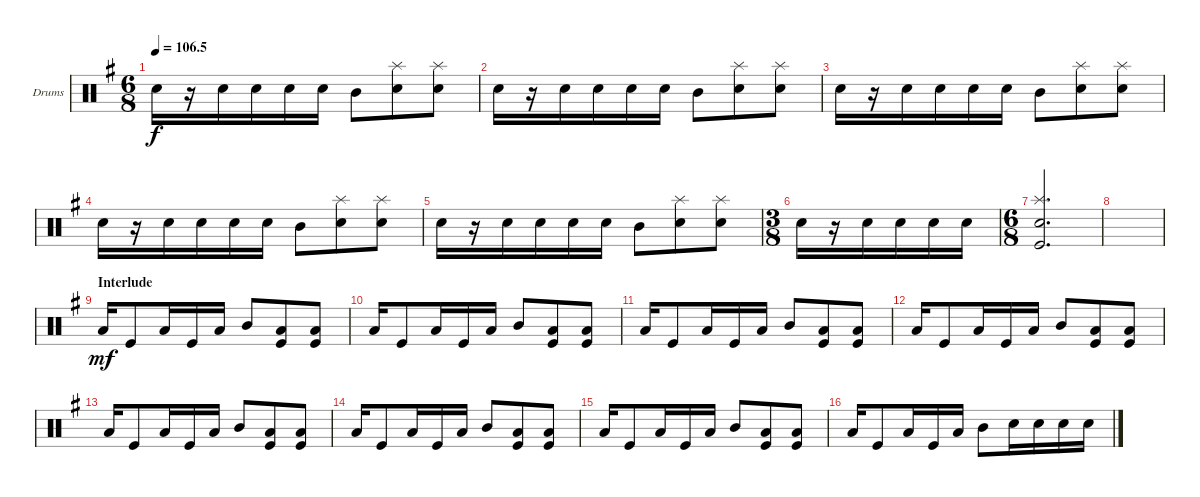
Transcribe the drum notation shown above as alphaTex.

\defaultSystemsLayout 4
\bracketExtendMode groupsimilarinstruments
\firstSystemTrackNameOrientation horizontal
\otherSystemsTrackNameOrientation horizontal
\track ("Drumkit" "Drums") {instrument percussion}
\staff {score}
\articulation defaults
\ts (6 8)
\tempo
106.5
\accidentals auto
\clef neutral
\ottava regular
\simile none
\scale
0.333333
\ks g "Snare (hit) 2".16{dy f}
r.16 "Snare (hit) 2".16 "Snare (hit) 2".16 "Snare (hit) 2".16 "Snare (hit) 2".16 "Mid Tom (hit)".8 ("Snare (hit) 2" "Splash (hit)").8 ("Snare (hit) 2" "Splash (hit)").8 |
\scale
0.333333 "Snare (hit) 2".16 r.16 "Snare (hit) 2".16 "Snare (hit) 2".16 "Snare (hit) 2".16 "Snare (hit) 2".16 "Mid Tom (hit)".8 ("Snare (hit) 2" "Splash (hit)").8 ("Snare (hit) 2" "Splash (hit)").8 |
\scale
0.333333 "Snare (hit) 2".16 r.16 "Snare (hit) 2".16 "Snare (hit) 2".16 "Snare (hit) 2".16 "Snare (hit) 2".16 "Mid Tom (hit)".8 ("Snare (hit) 2" "Splash (hit)").8 ("Snare (hit) 2" "Splash (hit)").8 |
\scale
0.333333 "Snare (hit) 2".16 r.16 "Snare (hit) 2".16 "Snare (hit) 2".16 "Snare (hit) 2".16 "Snare (hit) 2".16 "Mid Tom (hit)".8 ("Snare (hit) 2" "Splash (hit)").8 ("Snare (hit) 2" "Splash (hit)").8 |
\scale
0.333333 "Snare (hit) 2".16 r.16 "Snare (hit) 2".16 "Snare (hit) 2".16 "Snare (hit) 2".16 "Snare (hit) 2".16 "Mid Tom (hit)".8 ("Snare (hit) 2" "Splash (hit)").8 ("Snare (hit) 2" "Splash (hit)").8 |
\ts (3 8)
\scale
0.400697 "Snare (hit) 2".16 r.16 "Snare (hit) 2".16 "Snare (hit) 2".16 "Snare (hit) 2".16 "Snare (hit) 2".16 |
\ts (6 8)
\scale
0.400697 ("Snare (hit) 2" "Kick (hit)" "Splash (hit)").2{d} |
\scale
0.198606 |
\section ("" "Interlude")
\scale
0.333333 "Low Tom (hit)".16{dy mf} "Kick (hit)".8 "Low Tom (hit)".16 "Kick (hit)".16 "Low Tom (hit)".16 "Mid Tom (hit)".8 ("Low Tom (hit)" "Kick (hit)").8 ("Low Tom (hit)" "Kick (hit)").8 |
\scale
0.333333 "Low Tom (hit)".16 "Kick (hit)".8 "Low Tom (hit)".16 "Kick (hit)".16 "Low Tom (hit)".16 "Mid Tom (hit)".8 ("Low Tom (hit)" "Kick (hit)").8 ("Low Tom (hit)" "Kick (hit)").8 |
\scale
0.333333 "Low Tom (hit)".16 "Kick (hit)".8 "Low Tom (hit)".16 "Kick (hit)".16 "Low Tom (hit)".16 "Mid Tom (hit)".8 ("Low Tom (hit)" "Kick (hit)").8 ("Low Tom (hit)" "Kick (hit)").8 |
\scale
0.333333 "Low Tom (hit)".16 "Kick (hit)".8 "Low Tom (hit)".16 "Kick (hit)".16 "Low Tom (hit)".16 "Mid Tom (hit)".8 ("Low Tom (hit)" "Kick (hit)").8 ("Low Tom (hit)" "Kick (hit)").8 |
\scale
0.333333 "Low Tom (hit)".16 "Kick (hit)".8 "Low Tom (hit)".16 "Kick (hit)".16 "Low Tom (hit)".16 "Mid Tom (hit)".8 ("Low Tom (hit)" "Kick (hit)").8 ("Low Tom (hit)" "Kick (hit)").8 |
\scale
0.333333 "Low Tom (hit)".16 "Kick (hit)".8 "Low Tom (hit)".16 "Kick (hit)".16 "Low Tom (hit)".16 "Mid Tom (hit)".8 ("Low Tom (hit)" "Kick (hit)").8 ("Low Tom (hit)" "Kick (hit)").8 |
\scale
0.333333 "Low Tom (hit)".16 "Kick (hit)".8 "Low Tom (hit)".16 "Kick (hit)".16 "Low Tom (hit)".16 "Mid Tom (hit)".8 ("Low Tom (hit)" "Kick (hit)").8 ("Low Tom (hit)" "Kick (hit)").8 |
\scale
0.333333 "Low Tom (hit)".16 "Kick (hit)".8 "Low Tom (hit)".16 "Kick (hit)".16 "Low Tom (hit)".16 "Mid Tom (hit)".8 "Snare (hit) 2".16 "Snare (hit) 2".16 "Snare (hit) 2".16 "Snare (hit) 2".16
